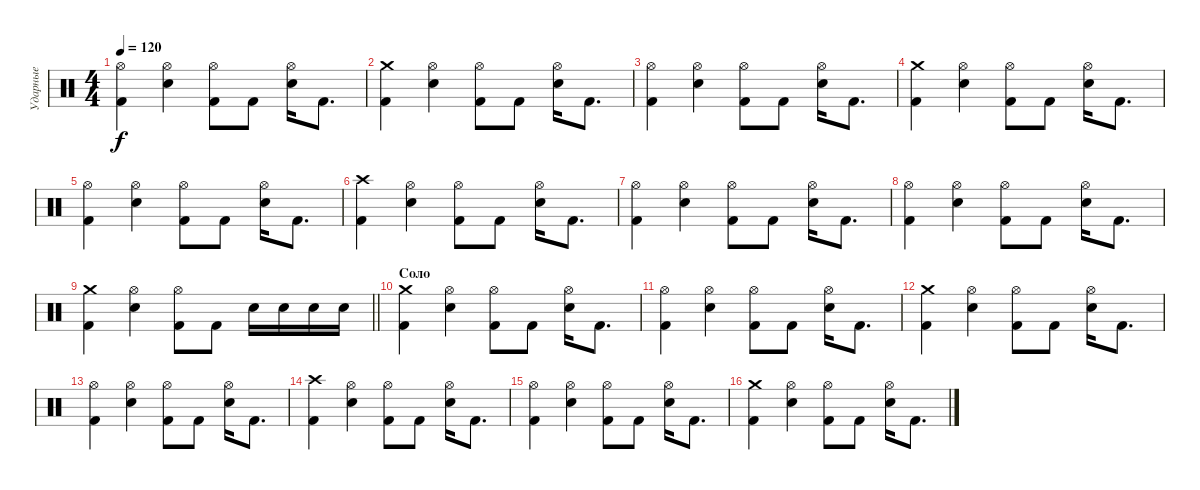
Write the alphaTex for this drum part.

\track ("Ударные" "Ударные") {instrument percussion}
\staff {score}
\articulation defaults
\ts (4 4)
\tempo 120
\clef neutral
\ks c
("Hi-Hat (open)" "Kick (hit) 2").4{dy f} ("Hi-Hat (open)" "Electric Snare (hit)").4 ("Hi-Hat (open)" "Kick (hit) 2").8 "Kick (hit) 2".8 ("Hi-Hat (open)" "Electric Snare (hit)").16 "Kick (hit) 2".8{d} |
("Crash medium (hit)" "Kick (hit) 2").4 ("Hi-Hat (open)" "Electric Snare (hit)").4 ("Hi-Hat (open)" "Kick (hit) 2").8 "Kick (hit) 2".8 ("Hi-Hat (open)" "Electric Snare (hit)").16 "Kick (hit) 2".8{d} |
("Hi-Hat (open)" "Kick (hit) 2").4 ("Hi-Hat (open)" "Electric Snare (hit)").4 ("Hi-Hat (open)" "Kick (hit) 2").8 "Kick (hit) 2".8 ("Hi-Hat (open)" "Electric Snare (hit)").16 "Kick (hit) 2".8{d} |
("Crash medium (hit)" "Kick (hit) 2").4 ("Hi-Hat (open)" "Electric Snare (hit)").4 ("Hi-Hat (open)" "Kick (hit) 2").8 "Kick (hit) 2".8 ("Hi-Hat (open)" "Electric Snare (hit)").16 "Kick (hit) 2".8{d} |
("Hi-Hat (open)" "Kick (hit) 2").4 ("Hi-Hat (open)" "Electric Snare (hit)").4 ("Hi-Hat (open)" "Kick (hit) 2").8 "Kick (hit) 2".8 ("Hi-Hat (open)" "Electric Snare (hit)").16 "Kick (hit) 2".8{d} |
("Crash high (hit)" "Kick (hit) 2").4 ("Hi-Hat (open)" "Electric Snare (hit)").4 ("Hi-Hat (open)" "Kick (hit) 2").8 "Kick (hit) 2".8 ("Hi-Hat (open)" "Electric Snare (hit)").16 "Kick (hit) 2".8{d} |
("Hi-Hat (open)" "Kick (hit) 2").4 ("Hi-Hat (open)" "Electric Snare (hit)").4 ("Hi-Hat (open)" "Kick (hit) 2").8 "Kick (hit) 2".8 ("Hi-Hat (open)" "Electric Snare (hit)").16 "Kick (hit) 2".8{d} |
("Hi-Hat (open)" "Kick (hit) 2").4 ("Hi-Hat (open)" "Electric Snare (hit)").4 ("Hi-Hat (open)" "Kick (hit) 2").8 "Kick (hit) 2".8 ("Hi-Hat (open)" "Electric Snare (hit)").16 "Kick (hit) 2".8{d} |
\barLineRight lightlight
("Crash medium (hit)" "Kick (hit) 2").4 ("Hi-Hat (open)" "Electric Snare (hit)").4 ("Hi-Hat (open)" "Kick (hit) 2").8 "Kick (hit) 2".8 "Electric Snare (hit)".16 "Electric Snare (hit)".16 "Electric Snare (hit)".16 "Electric Snare (hit)".16 |
\section ("" "Соло")
("Crash medium (hit)" "Kick (hit) 2").4 ("Hi-Hat (open)" "Electric Snare (hit)").4 ("Hi-Hat (open)" "Kick (hit) 2").8 "Kick (hit) 2".8 ("Hi-Hat (open)" "Electric Snare (hit)").16 "Kick (hit) 2".8{d} |
("Hi-Hat (open)" "Kick (hit) 2").4 ("Hi-Hat (open)" "Electric Snare (hit)").4 ("Hi-Hat (open)" "Kick (hit) 2").8 "Kick (hit) 2".8 ("Hi-Hat (open)" "Electric Snare (hit)").16 "Kick (hit) 2".8{d} |
("Crash medium (hit)" "Kick (hit) 2").4 ("Hi-Hat (open)" "Electric Snare (hit)").4 ("Hi-Hat (open)" "Kick (hit) 2").8 "Kick (hit) 2".8 ("Hi-Hat (open)" "Electric Snare (hit)").16 "Kick (hit) 2".8{d} |
("Hi-Hat (open)" "Kick (hit) 2").4 ("Hi-Hat (open)" "Electric Snare (hit)").4 ("Hi-Hat (open)" "Kick (hit) 2").8 "Kick (hit) 2".8 ("Hi-Hat (open)" "Electric Snare (hit)").16 "Kick (hit) 2".8{d} |
("Crash high (hit)" "Kick (hit) 2").4 ("Hi-Hat (open)" "Electric Snare (hit)").4 ("Hi-Hat (open)" "Kick (hit) 2").8 "Kick (hit) 2".8 ("Hi-Hat (open)" "Electric Snare (hit)").16 "Kick (hit) 2".8{d} |
("Hi-Hat (open)" "Kick (hit) 2").4 ("Hi-Hat (open)" "Electric Snare (hit)").4 ("Hi-Hat (open)" "Kick (hit) 2").8 "Kick (hit) 2".8 ("Hi-Hat (open)" "Electric Snare (hit)").16 "Kick (hit) 2".8{d} |
("Crash medium (hit)" "Kick (hit) 2").4 ("Hi-Hat (open)" "Electric Snare (hit)").4 ("Hi-Hat (open)" "Kick (hit) 2").8 "Kick (hit) 2".8 ("Hi-Hat (open)" "Electric Snare (hit)").16 "Kick (hit) 2".8{d}
